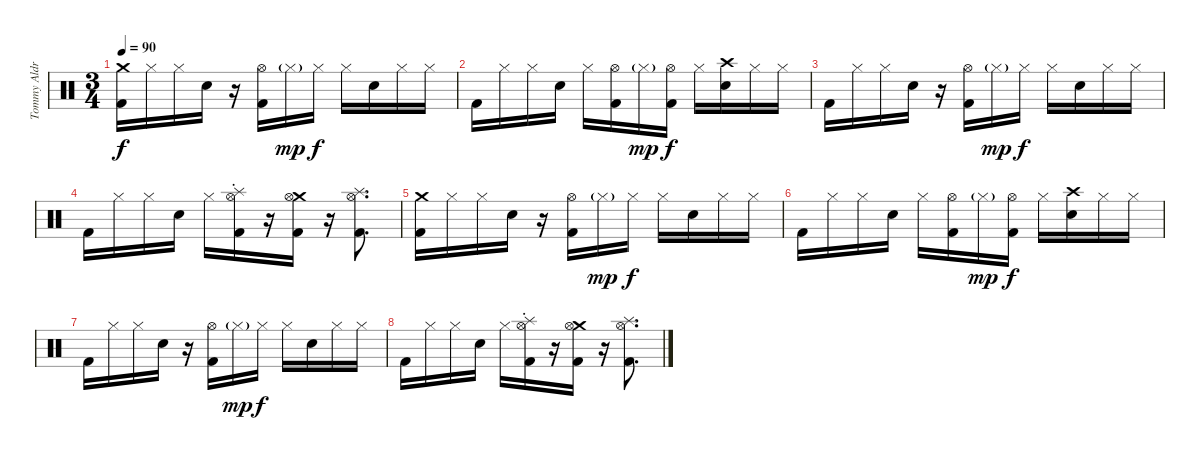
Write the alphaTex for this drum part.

\track ("Tommy Aldridge" "Tommy Aldr") {instrument percussion}
\staff {score}
\articulation defaults
\ts (3 4)
\tempo 90
\clef neutral
\ks c
("Crash medium (hit)" "Kick (hit) 2").16{dy f} "Hi-Hat (closed)".16 "Hi-Hat (closed)".16 "Snare (hit) 2".16 r.16 ("Hi-Hat (open)" "Kick (hit) 2").16 "Hi-Hat (closed)"{g}.16{dy mp} "Hi-Hat (closed)".16{dy f} "Hi-Hat (closed)".16 "Snare (hit) 2".16 "Hi-Hat (closed)".16 "Hi-Hat (closed)".16 |
"Kick (hit) 2".16 "Hi-Hat (closed)".16 "Hi-Hat (closed)".16 "Snare (hit) 2".16 "Hi-Hat (closed)".16 ("Hi-Hat (open)" "Kick (hit) 2").16{volume 1} "Hi-Hat (closed)"{g}.16{dy mp} ("Hi-Hat (open)" "Kick (hit) 2").16{dy f} "Hi-Hat (closed)".16 ("Crash high (hit)" "Snare (hit) 2").16 "Hi-Hat (closed)".16 "Hi-Hat (closed)".16 |
"Kick (hit) 2".16 "Hi-Hat (closed)".16 "Hi-Hat (closed)".16 "Snare (hit) 2".16 r.16 ("Hi-Hat (open)" "Kick (hit) 2").16 "Hi-Hat (closed)"{g}.16{dy mp} "Hi-Hat (closed)".16{dy f} "Hi-Hat (closed)".16 "Snare (hit) 2".16 "Hi-Hat (closed)".16 "Hi-Hat (closed)".16 |
"Kick (hit) 2".16 "Hi-Hat (closed)".16 "Hi-Hat (closed)".16 "Snare (hit) 2".16 "Hi-Hat (closed)".16 ("Splash (hit)" "Hi-Hat (open)"{st} "Kick (hit) 2").16 r.16 ("Crash medium (hit)" "Hi-Hat (open)" "Kick (hit) 2").16 r.16 ("Splash (hit)" "Hi-Hat (open)" "Kick (hit) 2").8{d} |
("Crash medium (hit)" "Kick (hit) 2").16 "Hi-Hat (closed)".16 "Hi-Hat (closed)".16 "Snare (hit) 2".16 r.16 ("Hi-Hat (open)" "Kick (hit) 2").16 "Hi-Hat (closed)"{g}.16{dy mp} "Hi-Hat (closed)".16{dy f} "Hi-Hat (closed)".16 "Snare (hit) 2".16 "Hi-Hat (closed)".16 "Hi-Hat (closed)".16 |
"Kick (hit) 2".16 "Hi-Hat (closed)".16 "Hi-Hat (closed)".16 "Snare (hit) 2".16 "Hi-Hat (closed)".16 ("Hi-Hat (open)" "Kick (hit) 2").16 "Hi-Hat (closed)"{g}.16{dy mp} ("Hi-Hat (open)" "Kick (hit) 2").16{dy f} "Hi-Hat (closed)".16 ("Crash high (hit)" "Snare (hit) 2").16 "Hi-Hat (closed)".16 "Hi-Hat (closed)".16 |
"Kick (hit) 2".16 "Hi-Hat (closed)".16 "Hi-Hat (closed)".16 "Snare (hit) 2".16 r.16 ("Hi-Hat (open)" "Kick (hit) 2").16 "Hi-Hat (closed)"{g}.16{dy mp} "Hi-Hat (closed)".16{dy f} "Hi-Hat (closed)".16 "Snare (hit) 2".16 "Hi-Hat (closed)".16 "Hi-Hat (closed)".16 |
"Kick (hit) 2".16 "Hi-Hat (closed)".16 "Hi-Hat (closed)".16 "Snare (hit) 2".16 "Hi-Hat (closed)".16 ("Splash (hit)" "Hi-Hat (open)"{st} "Kick (hit) 2").16 r.16 ("Crash medium (hit)" "Hi-Hat (open)" "Kick (hit) 2").16 r.16 ("Splash (hit)" "Hi-Hat (open)" "Kick (hit) 2").8{d}
